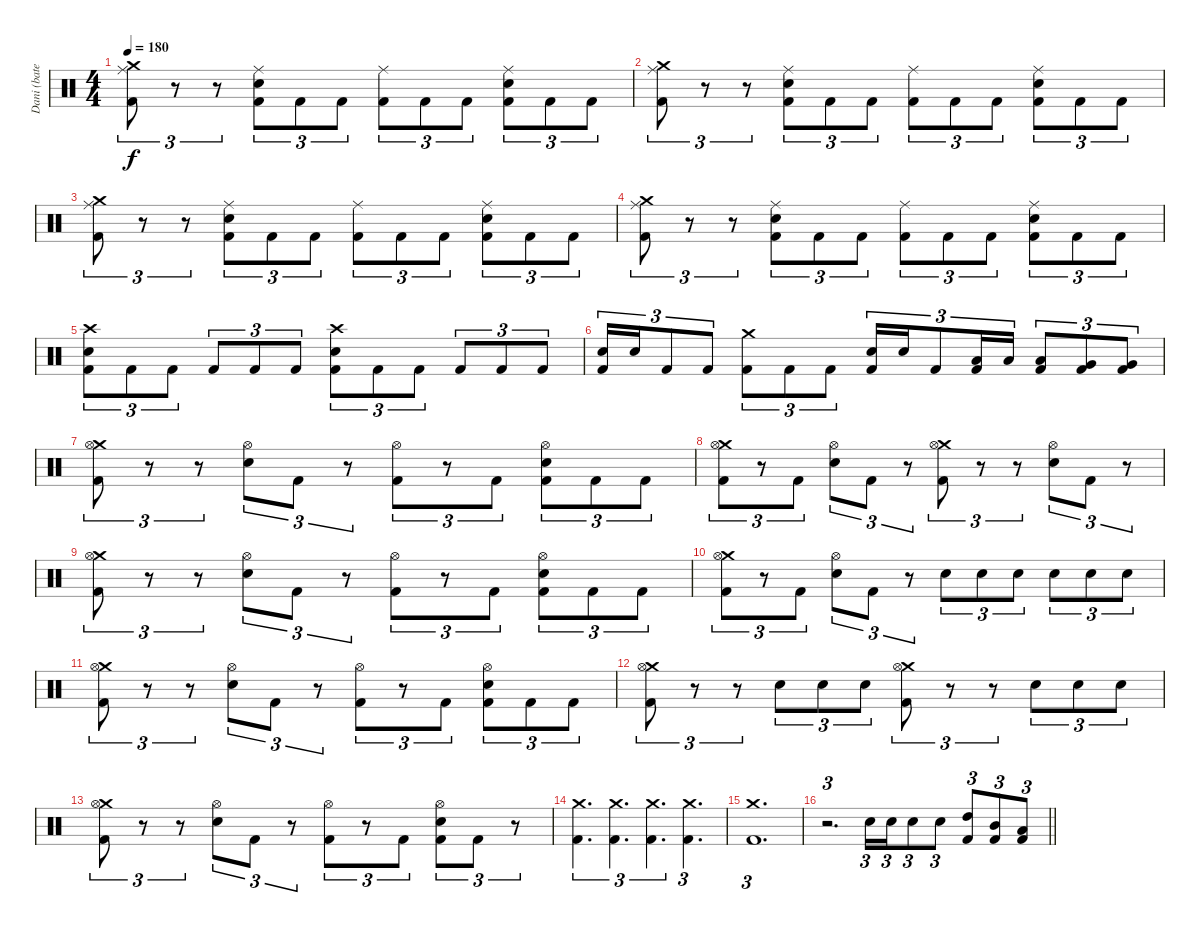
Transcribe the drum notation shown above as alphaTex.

\track ("Dani (bateria)" "Dani (bate") {instrument percussion}
\staff {score}
\articulation defaults
\ts (4 4)
\tempo 180
\clef neutral
\ks c
("Crash medium (hit)" "Ride (middle)" "Kick (hit) 2").8{tu (3 2) dy f} r.8{tu (3 2)} r.8{tu (3 2)} ("Ride (middle)" "Electric Snare (hit)" "Kick (hit) 2").8{tu (3 2)} "Kick (hit) 2".8{tu (3 2)} "Kick (hit) 2".8{tu (3 2)} ("Ride (middle)" "Kick (hit) 2").8{tu (3 2)} "Kick (hit) 2".8{tu (3 2)} "Kick (hit) 2".8{tu (3 2)} ("Ride (middle)" "Electric Snare (hit)" "Kick (hit) 2").8{tu (3 2)} "Kick (hit) 2".8{tu (3 2)} "Kick (hit) 2".8{tu (3 2)} |
("Crash medium (hit)" "Ride (middle)" "Kick (hit) 2").8{tu (3 2)} r.8{tu (3 2)} r.8{tu (3 2)} ("Ride (middle)" "Electric Snare (hit)" "Kick (hit) 2").8{tu (3 2)} "Kick (hit) 2".8{tu (3 2)} "Kick (hit) 2".8{tu (3 2)} ("Ride (middle)" "Kick (hit) 2").8{tu (3 2)} "Kick (hit) 2".8{tu (3 2)} "Kick (hit) 2".8{tu (3 2)} ("Ride (middle)" "Electric Snare (hit)" "Kick (hit) 2").8{tu (3 2)} "Kick (hit) 2".8{tu (3 2)} "Kick (hit) 2".8{tu (3 2)} |
("Crash medium (hit)" "Ride (middle)" "Kick (hit) 2").8{tu (3 2)} r.8{tu (3 2)} r.8{tu (3 2)} ("Ride (middle)" "Electric Snare (hit)" "Kick (hit) 2").8{tu (3 2)} "Kick (hit) 2".8{tu (3 2)} "Kick (hit) 2".8{tu (3 2)} ("Ride (middle)" "Kick (hit) 2").8{tu (3 2)} "Kick (hit) 2".8{tu (3 2)} "Kick (hit) 2".8{tu (3 2)} ("Ride (middle)" "Electric Snare (hit)" "Kick (hit) 2").8{tu (3 2)} "Kick (hit) 2".8{tu (3 2)} "Kick (hit) 2".8{tu (3 2)} |
("Crash medium (hit)" "Ride (middle)" "Kick (hit) 2").8{tu (3 2)} r.8{tu (3 2)} r.8{tu (3 2)} ("Ride (middle)" "Electric Snare (hit)" "Kick (hit) 2").8{tu (3 2)} "Kick (hit) 2".8{tu (3 2)} "Kick (hit) 2".8{tu (3 2)} ("Ride (middle)" "Kick (hit) 2").8{tu (3 2)} "Kick (hit) 2".8{tu (3 2)} "Kick (hit) 2".8{tu (3 2)} ("Ride (middle)" "Electric Snare (hit)" "Kick (hit) 2").8{tu (3 2)} "Kick (hit) 2".8{tu (3 2)} "Kick (hit) 2".8{tu (3 2)} |
("Crash high (hit)" "Electric Snare (hit)" "Kick (hit) 2").8{tu (3 2)} "Kick (hit) 2".8{tu (3 2)} "Kick (hit) 2".8{tu (3 2)} "Kick (hit) 2".8{tu (3 2)} "Kick (hit) 2".8{tu (3 2)} "Kick (hit) 2".8{tu (3 2)} ("Crash high (hit)" "Electric Snare (hit)" "Kick (hit) 2").8{tu (3 2)} "Kick (hit) 2".8{tu (3 2)} "Kick (hit) 2".8{tu (3 2)} "Kick (hit) 2".8{tu (3 2)} "Kick (hit) 2".8{tu (3 2)} "Kick (hit) 2".8{tu (3 2)} |
("Electric Snare (hit)" "Kick (hit) 2").16{tu (3 2)} "Electric Snare (hit)".16{tu (3 2)} "Kick (hit) 2".8{tu (3 2)} "Kick (hit) 2".8{tu (3 2)} ("Crash medium (hit)" "Kick (hit) 2").8{tu (3 2)} "Kick (hit) 2".8{tu (3 2)} "Kick (hit) 2".8{tu (3 2)} ("Electric Snare (hit)" "Kick (hit) 2").16{tu (3 2)} "Electric Snare (hit)".16{tu (3 2)} "Kick (hit) 2".8{tu (3 2)} ("Low Tom (hit)" "Kick (hit) 2").16{tu (3 2)} "Low Tom (hit)".16{tu (3 2)} ("Low Tom (hit)" "Kick (hit) 2").8{tu (3 2)} ("Very Low Tom (hit)" "Kick (hit) 2").8{tu (3 2)} ("Very Low Tom (hit)" "Kick (hit) 2").8{tu (3 2)} |
("Crash medium (hit)" "Hi-Hat (open)" "Kick (hit) 2").8{tu (3 2)} r.8{tu (3 2)} r.8{tu (3 2)} ("Hi-Hat (open)" "Electric Snare (hit)").8{tu (3 2)} "Kick (hit) 2".8{tu (3 2)} r.8{tu (3 2)} ("Hi-Hat (open)" "Kick (hit) 2").8{tu (3 2)} r.8{tu (3 2)} "Kick (hit) 2".8{tu (3 2)} ("Hi-Hat (open)" "Electric Snare (hit)" "Kick (hit) 2").8{tu (3 2)} "Kick (hit) 2".8{tu (3 2)} "Kick (hit) 2".8{tu (3 2)} |
("Crash medium (hit)" "Hi-Hat (open)" "Kick (hit) 2").8{tu (3 2)} r.8{tu (3 2)} "Kick (hit) 2".8{tu (3 2)} ("Hi-Hat (open)" "Electric Snare (hit)").8{tu (3 2)} "Kick (hit) 2".8{tu (3 2)} r.8{tu (3 2)} ("Crash medium (hit)" "Hi-Hat (open)" "Kick (hit) 2").8{tu (3 2)} r.8{tu (3 2)} r.8{tu (3 2)} ("Hi-Hat (open)" "Electric Snare (hit)").8{tu (3 2)} "Kick (hit) 2".8{tu (3 2)} r.8{tu (3 2)} |
("Crash medium (hit)" "Hi-Hat (open)" "Kick (hit) 2").8{tu (3 2)} r.8{tu (3 2)} r.8{tu (3 2)} ("Hi-Hat (open)" "Electric Snare (hit)").8{tu (3 2)} "Kick (hit) 2".8{tu (3 2)} r.8{tu (3 2)} ("Hi-Hat (open)" "Kick (hit) 2").8{tu (3 2)} r.8{tu (3 2)} "Kick (hit) 2".8{tu (3 2)} ("Hi-Hat (open)" "Electric Snare (hit)" "Kick (hit) 2").8{tu (3 2)} "Kick (hit) 2".8{tu (3 2)} "Kick (hit) 2".8{tu (3 2)} |
("Crash medium (hit)" "Hi-Hat (open)" "Kick (hit) 2").8{tu (3 2)} r.8{tu (3 2)} "Kick (hit) 2".8{tu (3 2)} ("Hi-Hat (open)" "Electric Snare (hit)").8{tu (3 2)} "Kick (hit) 2".8{tu (3 2)} r.8{tu (3 2)} "Electric Snare (hit)".8{tu (3 2)} "Electric Snare (hit)".8{tu (3 2)} "Electric Snare (hit)".8{tu (3 2)} "Electric Snare (hit)".8{tu (3 2)} "Electric Snare (hit)".8{tu (3 2)} "Electric Snare (hit)".8{tu (3 2)} |
("Crash medium (hit)" "Hi-Hat (open)" "Kick (hit) 2").8{tu (3 2)} r.8{tu (3 2)} r.8{tu (3 2)} ("Hi-Hat (open)" "Electric Snare (hit)").8{tu (3 2)} "Kick (hit) 2".8{tu (3 2)} r.8{tu (3 2)} ("Hi-Hat (open)" "Kick (hit) 2").8{tu (3 2)} r.8{tu (3 2)} "Kick (hit) 2".8{tu (3 2)} ("Hi-Hat (open)" "Electric Snare (hit)" "Kick (hit) 2").8{tu (3 2)} "Kick (hit) 2".8{tu (3 2)} "Kick (hit) 2".8{tu (3 2)} |
("Crash medium (hit)" "Hi-Hat (open)" "Kick (hit) 2").8{tu (3 2)} r.8{tu (3 2)} r.8{tu (3 2)} "Electric Snare (hit)".8{tu (3 2)} "Electric Snare (hit)".8{tu (3 2)} "Electric Snare (hit)".8{tu (3 2)} ("Crash medium (hit)" "Hi-Hat (open)" "Kick (hit) 2").8{tu (3 2)} r.8{tu (3 2)} r.8{tu (3 2)} "Electric Snare (hit)".8{tu (3 2)} "Electric Snare (hit)".8{tu (3 2)} "Electric Snare (hit)".8{tu (3 2)} |
("Crash medium (hit)" "Hi-Hat (open)" "Kick (hit) 2").8{tu (3 2)} r.8{tu (3 2)} r.8{tu (3 2)} ("Hi-Hat (open)" "Electric Snare (hit)").8{tu (3 2)} "Kick (hit) 2".8{tu (3 2)} r.8{tu (3 2)} ("Hi-Hat (open)" "Kick (hit) 2").8{tu (3 2)} r.8{tu (3 2)} "Kick (hit) 2".8{tu (3 2)} ("Hi-Hat (open)" "Electric Snare (hit)" "Kick (hit) 2").8{tu (3 2)} "Kick (hit) 2".8{tu (3 2)} r.8{tu (3 2)} |
("Crash medium (hit)" "Kick (hit) 2").4{d tu (3 2)} ("Crash medium (hit)" "Kick (hit) 2").4{d tu (3 2)} ("Crash medium (hit)" "Kick (hit) 2").4{d tu (3 2)} ("Crash medium (hit)" "Kick (hit) 2").4{d tu (3 2)} |
("Crash medium (hit)" "Kick (hit) 2").1{d tu (3 2)} |
\barLineRight lightlight
r.2{d tu (3 2)} "Electric Snare (hit)".16{tu (3 2)} "Electric Snare (hit)".16{tu (3 2)} "Electric Snare (hit)".8{tu (3 2)} "Electric Snare (hit)".8{tu (3 2)} ("High Tom (hit)" "Kick (hit) 2").8{tu (3 2)} ("Mid Tom (hit)" "Kick (hit) 2").8{tu (3 2)} ("Low Tom (hit)" "Kick (hit) 2").8{tu (3 2)}
